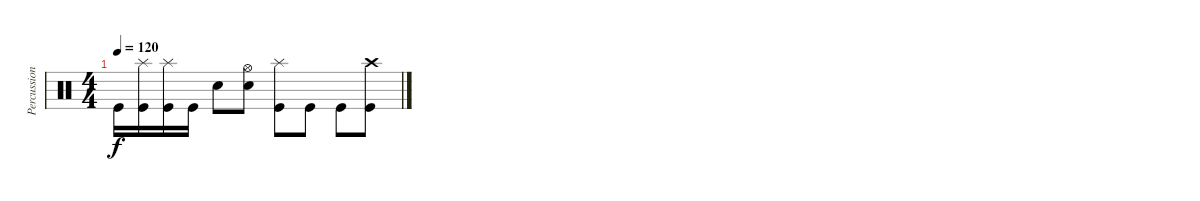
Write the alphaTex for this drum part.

\track ("Percussions" "Percussion") {instrument percussion}
\staff {score}
\articulation defaults
\ts (4 4)
\tempo 120
\clef neutral
\ks c "Kick (hit)".16{dy f}
("Splash (hit)" "Kick (hit)").16 ("Splash (hit)" "Kick (hit)").16 "Kick (hit)".16 "Snare (hit) 2".8 ("Hi-Hat (open)" "Snare (hit) 2").8 ("Splash (hit)" "Kick (hit)").8 "Kick (hit)".8 "Kick (hit)".8 ("Crash high (hit)" "Kick (hit)").8
